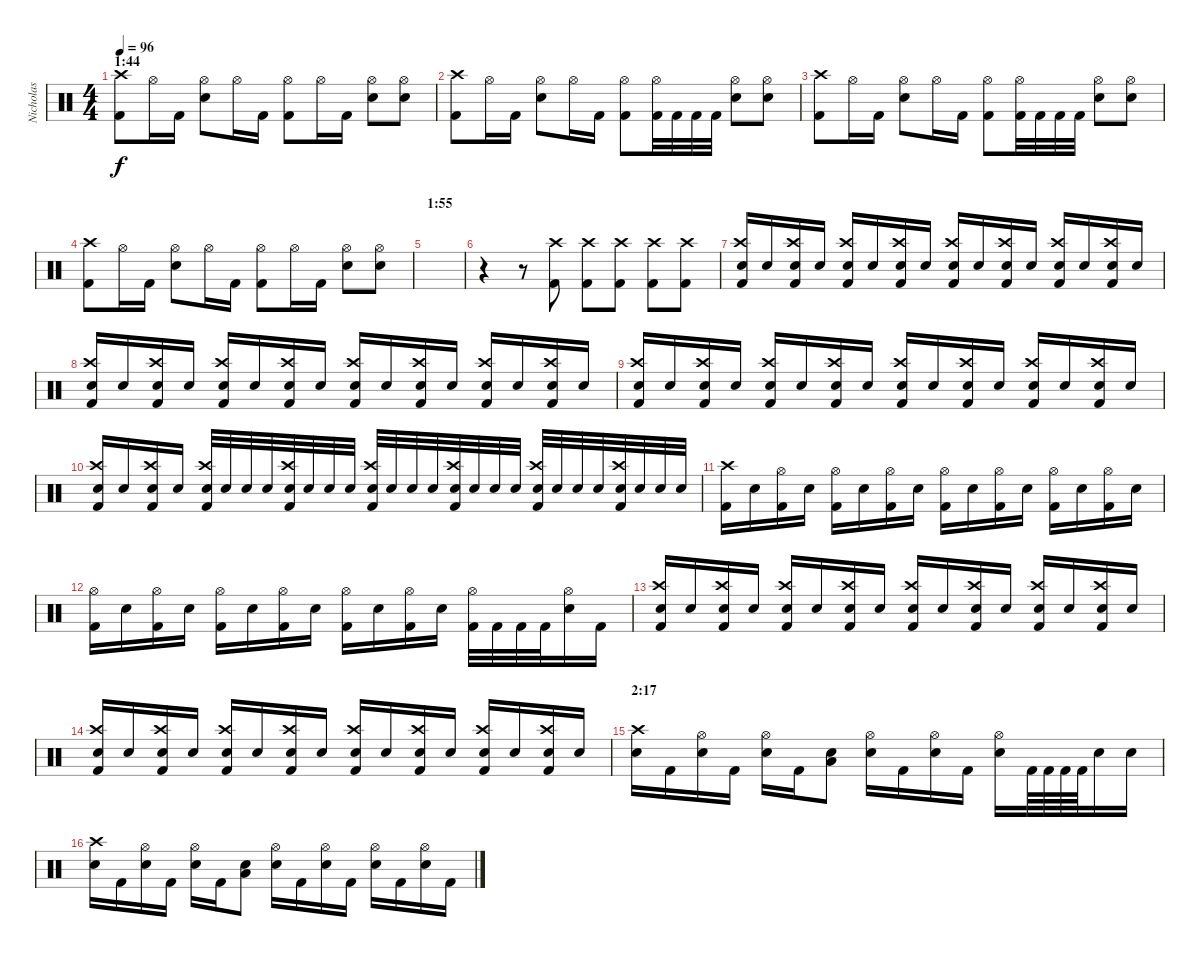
\track ("Nicholas" "Nicholas") {instrument percussion}
\staff {score}
\articulation defaults
\ts (4 4)
\section ("" "1:44")
\tempo 96
\clef neutral
\ks c
("Kick (hit) 2" "Crash high (hit)").8{dy f} "Hi-Hat (open)".16 "Kick (hit) 2".16 ("Snare (hit) 2" "Hi-Hat (open)").8 "Hi-Hat (open)".16 "Kick (hit) 2".16 ("Kick (hit) 2" "Hi-Hat (open)").8 "Hi-Hat (open)".16 "Kick (hit) 2".16 ("Snare (hit) 2" "Hi-Hat (open)").8 ("Snare (hit) 2" "Hi-Hat (open)").8 |
("Kick (hit) 2" "Crash high (hit)").8 "Hi-Hat (open)".16 "Kick (hit) 2".16 ("Snare (hit) 2" "Hi-Hat (open)").8 "Hi-Hat (open)".16 "Kick (hit) 2".16 ("Kick (hit) 2" "Hi-Hat (open)").8 ("Kick (hit) 2" "Hi-Hat (open)").32 "Kick (hit) 2".32 "Kick (hit) 2".32 "Kick (hit) 2".32 ("Snare (hit) 2" "Hi-Hat (open)").8 ("Snare (hit) 2" "Hi-Hat (open)").8 |
("Kick (hit) 2" "Crash high (hit)").8 "Hi-Hat (open)".16 "Kick (hit) 2".16 ("Snare (hit) 2" "Hi-Hat (open)").8 "Hi-Hat (open)".16 "Kick (hit) 2".16 ("Kick (hit) 2" "Hi-Hat (open)").8 ("Kick (hit) 2" "Hi-Hat (open)").32 "Kick (hit) 2".32 "Kick (hit) 2".32 "Kick (hit) 2".32 ("Snare (hit) 2" "Hi-Hat (open)").8 ("Snare (hit) 2" "Hi-Hat (open)").8 |
("Kick (hit) 2" "Crash high (hit)").8 "Hi-Hat (open)".16 "Kick (hit) 2".16 ("Snare (hit) 2" "Hi-Hat (open)").8 "Hi-Hat (open)".16 "Kick (hit) 2".16 ("Kick (hit) 2" "Hi-Hat (open)").8 "Hi-Hat (open)".16 "Kick (hit) 2".16 ("Snare (hit) 2" "Hi-Hat (open)").8 ("Snare (hit) 2" "Hi-Hat (open)").8 |
\section ("" "1:55")
|
r.4 r.8 ("Kick (hit) 2" "Crash high (hit)").8 ("Kick (hit) 2" "Crash high (hit)").8 ("Kick (hit) 2" "Crash high (hit)").8 ("Kick (hit) 2" "Crash high (hit)").8 ("Kick (hit) 2" "Crash high (hit)").8 |
("Kick (hit) 2" "Snare (hit) 2" "Crash high (hit)").16 "Snare (hit) 2".16 ("Kick (hit) 2" "Snare (hit) 2" "Crash high (hit)").16 "Snare (hit) 2".16 ("Kick (hit) 2" "Snare (hit) 2" "Crash high (hit)").16 "Snare (hit) 2".16 ("Kick (hit) 2" "Snare (hit) 2" "Crash high (hit)").16 "Snare (hit) 2".16 ("Kick (hit) 2" "Snare (hit) 2" "Crash high (hit)").16 "Snare (hit) 2".16 ("Kick (hit) 2" "Snare (hit) 2" "Crash high (hit)").16 "Snare (hit) 2".16 ("Kick (hit) 2" "Snare (hit) 2" "Crash high (hit)").16 "Snare (hit) 2".16 ("Kick (hit) 2" "Snare (hit) 2" "Crash high (hit)").16 "Snare (hit) 2".16 |
("Kick (hit) 2" "Snare (hit) 2" "Crash high (hit)").16 "Snare (hit) 2".16 ("Kick (hit) 2" "Snare (hit) 2" "Crash high (hit)").16 "Snare (hit) 2".16 ("Kick (hit) 2" "Snare (hit) 2" "Crash high (hit)").16 "Snare (hit) 2".16 ("Kick (hit) 2" "Snare (hit) 2" "Crash high (hit)").16 "Snare (hit) 2".16 ("Kick (hit) 2" "Snare (hit) 2" "Crash high (hit)").16 "Snare (hit) 2".16 ("Kick (hit) 2" "Snare (hit) 2" "Crash high (hit)").16 "Snare (hit) 2".16 ("Kick (hit) 2" "Snare (hit) 2" "Crash high (hit)").16 "Snare (hit) 2".16 ("Kick (hit) 2" "Snare (hit) 2" "Crash high (hit)").16 "Snare (hit) 2".16 |
("Kick (hit) 2" "Snare (hit) 2" "Crash high (hit)").16 "Snare (hit) 2".16 ("Kick (hit) 2" "Snare (hit) 2" "Crash high (hit)").16 "Snare (hit) 2".16 ("Kick (hit) 2" "Snare (hit) 2" "Crash high (hit)").16 "Snare (hit) 2".16 ("Kick (hit) 2" "Snare (hit) 2" "Crash high (hit)").16 "Snare (hit) 2".16 ("Kick (hit) 2" "Snare (hit) 2" "Crash high (hit)").16 "Snare (hit) 2".16 ("Kick (hit) 2" "Snare (hit) 2" "Crash high (hit)").16 "Snare (hit) 2".16 ("Kick (hit) 2" "Snare (hit) 2" "Crash high (hit)").16 "Snare (hit) 2".16 ("Kick (hit) 2" "Snare (hit) 2" "Crash high (hit)").16 "Snare (hit) 2".16 |
("Kick (hit) 2" "Snare (hit) 2" "Crash high (hit)").16 "Snare (hit) 2".16 ("Kick (hit) 2" "Snare (hit) 2" "Crash high (hit)").16 "Snare (hit) 2".16 ("Kick (hit) 2" "Snare (hit) 2" "Crash high (hit)").32 "Snare (hit) 2".32 "Snare (hit) 2".32 "Snare (hit) 2".32 ("Kick (hit) 2" "Snare (hit) 2" "Crash high (hit)").32 "Snare (hit) 2".32 "Snare (hit) 2".32 "Snare (hit) 2".32 ("Kick (hit) 2" "Snare (hit) 2" "Crash high (hit)").32 "Snare (hit) 2".32 "Snare (hit) 2".32 "Snare (hit) 2".32 ("Kick (hit) 2" "Snare (hit) 2" "Crash high (hit)").32 "Snare (hit) 2".32 "Snare (hit) 2".32 "Snare (hit) 2".32 ("Kick (hit) 2" "Snare (hit) 2" "Crash high (hit)").32 "Snare (hit) 2".32 "Snare (hit) 2".32 "Snare (hit) 2".32 ("Kick (hit) 2" "Snare (hit) 2" "Crash high (hit)").32 "Snare (hit) 2".32 "Snare (hit) 2".32 "Snare (hit) 2".32 |
("Kick (hit) 2" "Crash high (hit)").16 "Snare (hit) 2".16 ("Kick (hit) 2" "Hi-Hat (open)").16 "Snare (hit) 2".16 ("Kick (hit) 2" "Hi-Hat (open)").16 "Snare (hit) 2".16 ("Kick (hit) 2" "Hi-Hat (open)").16 "Snare (hit) 2".16 ("Kick (hit) 2" "Hi-Hat (open)").16 "Snare (hit) 2".16 ("Kick (hit) 2" "Hi-Hat (open)").16 "Snare (hit) 2".16 ("Kick (hit) 2" "Hi-Hat (open)").16 "Snare (hit) 2".16 ("Kick (hit) 2" "Hi-Hat (open)").16 "Snare (hit) 2".16 |
("Kick (hit) 2" "Hi-Hat (open)").16 "Snare (hit) 2".16 ("Kick (hit) 2" "Hi-Hat (open)").16 "Snare (hit) 2".16 ("Kick (hit) 2" "Hi-Hat (open)").16 "Snare (hit) 2".16 ("Kick (hit) 2" "Hi-Hat (open)").16 "Snare (hit) 2".16 ("Kick (hit) 2" "Hi-Hat (open)").16 "Snare (hit) 2".16 ("Kick (hit) 2" "Hi-Hat (open)").16 "Snare (hit) 2".16 ("Kick (hit) 2" "Hi-Hat (open)").32 "Kick (hit) 2".32 "Kick (hit) 2".32 "Kick (hit) 2".32 ("Snare (hit) 2" "Hi-Hat (open)").16 "Kick (hit) 2".16 |
("Kick (hit) 2" "Snare (hit) 2" "Crash high (hit)").16 "Snare (hit) 2".16 ("Kick (hit) 2" "Snare (hit) 2" "Crash high (hit)").16 "Snare (hit) 2".16 ("Kick (hit) 2" "Snare (hit) 2" "Crash high (hit)").16 "Snare (hit) 2".16 ("Kick (hit) 2" "Snare (hit) 2" "Crash high (hit)").16 "Snare (hit) 2".16 ("Kick (hit) 2" "Snare (hit) 2" "Crash high (hit)").16 "Snare (hit) 2".16 ("Kick (hit) 2" "Snare (hit) 2" "Crash high (hit)").16 "Snare (hit) 2".16 ("Kick (hit) 2" "Snare (hit) 2" "Crash high (hit)").16 "Snare (hit) 2".16 ("Kick (hit) 2" "Snare (hit) 2" "Crash high (hit)").16 "Snare (hit) 2".16 |
("Kick (hit) 2" "Snare (hit) 2" "Crash high (hit)").16 "Snare (hit) 2".16 ("Kick (hit) 2" "Snare (hit) 2" "Crash high (hit)").16 "Snare (hit) 2".16 ("Kick (hit) 2" "Snare (hit) 2" "Crash high (hit)").16 "Snare (hit) 2".16 ("Kick (hit) 2" "Snare (hit) 2" "Crash high (hit)").16 "Snare (hit) 2".16 ("Kick (hit) 2" "Snare (hit) 2" "Crash high (hit)").16 "Snare (hit) 2".16 ("Kick (hit) 2" "Snare (hit) 2" "Crash high (hit)").16 "Snare (hit) 2".16 ("Kick (hit) 2" "Snare (hit) 2" "Crash high (hit)").16 "Snare (hit) 2".16 ("Kick (hit) 2" "Snare (hit) 2" "Crash high (hit)").16 "Snare (hit) 2".16 |
\section ("" "2:17")
("Snare (hit) 2" "Crash high (hit)").16 "Kick (hit) 2".16 ("Snare (hit) 2" "Hi-Hat (open)").16 "Kick (hit) 2".16 ("Snare (hit) 2" "Hi-Hat (open)").16 "Kick (hit) 2".16 ("Snare (hit) 2" "Low Tom (hit)").8 ("Snare (hit) 2" "Hi-Hat (open)").16 "Kick (hit) 2".16 ("Snare (hit) 2" "Hi-Hat (open)").16 "Kick (hit) 2".16 ("Snare (hit) 2" "Hi-Hat (open)").16 "Kick (hit) 2".64 "Kick (hit) 2".64 "Kick (hit) 2".64 "Kick (hit) 2".64 "Snare (hit) 2".16 "Snare (hit) 2".16 |
("Snare (hit) 2" "Crash high (hit)").16 "Kick (hit) 2".16 ("Snare (hit) 2" "Hi-Hat (open)").16 "Kick (hit) 2".16 ("Snare (hit) 2" "Hi-Hat (open)").16 "Kick (hit) 2".16 ("Snare (hit) 2" "Low Tom (hit)").8 ("Snare (hit) 2" "Hi-Hat (open)").16 "Kick (hit) 2".16 ("Snare (hit) 2" "Hi-Hat (open)").16 "Kick (hit) 2".16 ("Snare (hit) 2" "Hi-Hat (open)").16 "Kick (hit) 2".16 ("Snare (hit) 2" "Hi-Hat (open)").16 "Kick (hit) 2".16
